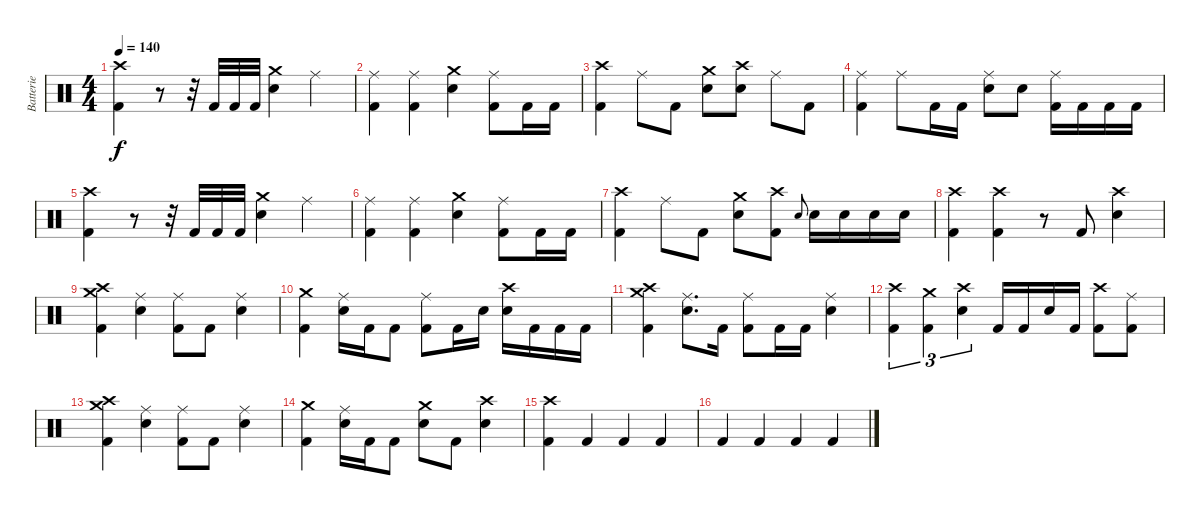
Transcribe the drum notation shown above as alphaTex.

\track ("Batterie" "Batterie") {instrument percussion}
\staff {score}
\articulation defaults
\ts (4 4)
\tempo 140
\clef neutral
\ks c
("Crash high (hit)" "Kick (hit) 2").4{dy f} r.8 r.32 "Kick (hit) 2".32 "Kick (hit) 2".32 "Kick (hit) 2".32 ("Crash medium (hit)" "Electric Snare (hit)").4 "Ride (middle)".4 |
("Ride (middle)" "Kick (hit) 2").4 ("Ride (middle)" "Kick (hit) 2").4 ("Crash medium (hit)" "Electric Snare (hit)").4 ("Ride (middle)" "Kick (hit) 2").8 "Kick (hit) 2".16 "Kick (hit) 2".16 |
("Crash high (hit)" "Kick (hit) 2").4 "Ride (middle)".8 "Kick (hit) 2".8 ("Crash medium (hit)" "Electric Snare (hit)").8 ("Crash high (hit)" "Electric Snare (hit)").8 "Ride (middle)".8 "Kick (hit) 2".8 |
("Ride (middle)" "Kick (hit) 2").4 "Ride (middle)".8 "Kick (hit) 2".16 "Kick (hit) 2".16 ("Ride (middle)" "Electric Snare (hit)").8 "Electric Snare (hit)".8 ("Ride (middle)" "Kick (hit) 2").16 "Kick (hit) 2".16 "Kick (hit) 2".16 "Kick (hit) 2".16 |
("Crash high (hit)" "Kick (hit) 2").4 r.8 r.32 "Kick (hit) 2".32 "Kick (hit) 2".32 "Kick (hit) 2".32 ("Crash medium (hit)" "Electric Snare (hit)").4 "Ride (middle)".4 |
("Ride (middle)" "Kick (hit) 2").4 ("Ride (middle)" "Kick (hit) 2").4 ("Crash medium (hit)" "Electric Snare (hit)").4 ("Ride (middle)" "Kick (hit) 2").8 "Kick (hit) 2".16 "Kick (hit) 2".16 |
("Crash high (hit)" "Kick (hit) 2").4 "Ride (middle)".8 "Kick (hit) 2".8 ("Crash medium (hit)" "Electric Snare (hit)").8 ("Crash high (hit)" "Kick (hit) 2").8 "Electric Snare (hit)".8{gr onbeat} "Electric Snare (hit)".16 "Electric Snare (hit)".16 "Electric Snare (hit)".16 "Electric Snare (hit)".16 |
("Crash high (hit)" "Kick (hit) 2").4 ("Crash high (hit)" "Kick (hit) 2").4 r.8 "Kick (hit) 2".8 ("Crash high (hit)" "Electric Snare (hit)").4 |
("Crash high (hit)" "Crash medium (hit)" "Kick (hit) 2").4 ("Ride (middle)" "Electric Snare (hit)").4 ("Ride (middle)" "Kick (hit) 2").8 "Kick (hit) 2".8 ("Ride (middle)" "Electric Snare (hit)").4 |
("Crash medium (hit)" "Kick (hit) 2").4 ("Ride (middle)" "Electric Snare (hit)").16 "Kick (hit) 2".16 "Kick (hit) 2".8 ("Ride (middle)" "Kick (hit) 2").8 "Kick (hit) 2".16 "Electric Snare (hit)".16 ("Crash high (hit)" "Electric Snare (hit)").16 "Kick (hit) 2".16 "Kick (hit) 2".16 "Kick (hit) 2".16 |
("Crash high (hit)" "Crash medium (hit)" "Kick (hit) 2").4 ("Ride (middle)" "Electric Snare (hit)").8{d} "Kick (hit) 2".16 ("Ride (middle)" "Kick (hit) 2").8 "Kick (hit) 2".16 "Kick (hit) 2".16 ("Ride (middle)" "Electric Snare (hit)").4 |
("Crash high (hit)" "Kick (hit) 2").4{tu (3 2)} ("Crash medium (hit)" "Kick (hit) 2").4{tu (3 2)} ("Crash high (hit)" "Electric Snare (hit)").4{tu (3 2)} "Kick (hit) 2".16 "Kick (hit) 2".16 "Electric Snare (hit)".16 "Kick (hit) 2".16 ("Crash high (hit)" "Kick (hit) 2").8 ("Ride (middle)" "Kick (hit) 2").8 |
("Crash high (hit)" "Crash medium (hit)" "Kick (hit) 2").4 ("Ride (middle)" "Electric Snare (hit)").4 ("Ride (middle)" "Kick (hit) 2").8 "Kick (hit) 2".8 ("Ride (middle)" "Electric Snare (hit)").4 |
("Crash medium (hit)" "Kick (hit) 2").4 ("Ride (middle)" "Electric Snare (hit)").16 "Kick (hit) 2".16 "Kick (hit) 2".8 ("Crash medium (hit)" "Electric Snare (hit)").8 "Kick (hit) 2".8 ("Crash high (hit)" "Electric Snare (hit)").4 |
("Crash high (hit)" "Kick (hit) 2").4 "Kick (hit) 2".4 "Kick (hit) 2".4 "Kick (hit) 2".4 |
"Kick (hit) 2".4 "Kick (hit) 2".4 "Kick (hit) 2".4 "Kick (hit) 2".4
